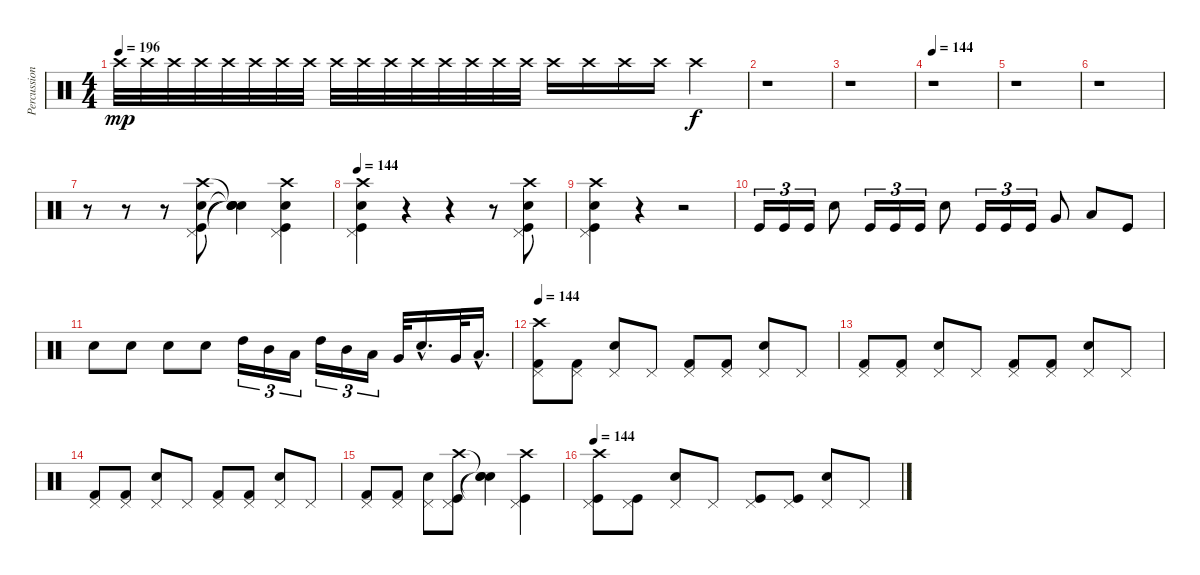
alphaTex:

\track ("Percussion" "Percussion") {instrument percussion}
\staff {score}
\articulation defaults
\ts (4 4)
\tempo 196
\clef neutral
\ks c "Crash high (hit)".32{dy mp} "Crash high (hit)".32 "Crash high (hit)".32 "Crash high (hit)".32 "Crash high (hit)".32 "Crash high (hit)".32 "Crash high (hit)".32 "Crash high (hit)".32 "Crash high (hit)".32 "Crash high (hit)".32 "Crash high (hit)".32 "Crash high (hit)".32 "Crash high (hit)".32 "Crash high (hit)".32 "Crash high (hit)".32 "Crash high (hit)".32 "Crash high (hit)".16 "Crash high (hit)".16 "Crash high (hit)".16 "Crash high (hit)".16 "Crash high (hit)".4{dy f}
|
r.1 |
r.1 |
\tempo 144
r.1 |
r.1 |
r.1 |
r.8 r.8 r.8 ("Crash high (hit)" "Pedal Hi-Hat (hit)" "Kick (hit)" "Snare (hit) 2").8 ("Snare (hit)"{t} "Snare (hit)"{t} "Snare (hit)"{t} "Snare (hit)"{t}).4 ("Crash high (hit)" "Pedal Hi-Hat (hit)" "Kick (hit)" "Snare (hit) 2").4 |
\tempo 144
("Crash high (hit)" "Kick (hit)" "Snare (hit) 2" "Pedal Hi-Hat (hit)").4 r.4 r.4 r.8 ("Crash high (hit)" "Kick (hit)" "Snare (hit) 2" "Pedal Hi-Hat (hit)").8 |
("Crash high (hit)" "Kick (hit)" "Snare (hit) 2" "Pedal Hi-Hat (hit)").4 r.4 r.2 |
"Kick (hit)".16{tu (3 2)} "Kick (hit)".16{tu (3 2)} "Kick (hit)".16{tu (3 2)} "Snare (hit) 2".8 "Kick (hit)".16{tu (3 2)} "Kick (hit)".16{tu (3 2)} "Kick (hit)".16{tu (3 2)} "Snare (hit) 2".8 "Kick (hit)".16{tu (3 2)} "Kick (hit)".16{tu (3 2)} "Kick (hit)".16{tu (3 2)} "Very Low Tom (hit)".8 "Low Floor Tom (hit)".8 "Kick (hit)".8 |
"Snare (hit) 2".8 "Snare (hit) 2".8 "Snare (hit) 2".8 "Snare (hit) 2".8 "High Tom (hit)".16{tu (3 2)} "Mid Tom (hit)".16{tu (3 2)} "Low Tom (hit)".16{tu (3 2)} "High Tom (hit)".16{tu (3 2)} "Mid Tom (hit)".16{tu (3 2)} "Low Tom (hit)".16{tu (3 2)} "Very Low Tom (hit)".32 "Snare (hit) 2"{hac}.16{d} "Very Low Tom (hit)".32 "Low Floor Tom (hit)"{hac}.16{d} |
\tempo 144
("Pedal Hi-Hat (hit)" "Kick (hit) 2" "Crash high (hit)").8 ("Pedal Hi-Hat (hit)" "Kick (hit) 2").8 ("Pedal Hi-Hat (hit)" "Snare (hit) 2").8 "Pedal Hi-Hat (hit)".8 ("Pedal Hi-Hat (hit)" "Kick (hit) 2").8 ("Pedal Hi-Hat (hit)" "Kick (hit) 2").8 ("Pedal Hi-Hat (hit)" "Snare (hit) 2").8 "Pedal Hi-Hat (hit)".8 |
("Pedal Hi-Hat (hit)" "Kick (hit) 2").8 ("Pedal Hi-Hat (hit)" "Kick (hit) 2").8 ("Pedal Hi-Hat (hit)" "Snare (hit) 2").8 "Pedal Hi-Hat (hit)".8 ("Pedal Hi-Hat (hit)" "Kick (hit) 2").8 ("Pedal Hi-Hat (hit)" "Kick (hit) 2").8 ("Pedal Hi-Hat (hit)" "Snare (hit) 2").8 "Pedal Hi-Hat (hit)".8 |
("Pedal Hi-Hat (hit)" "Kick (hit) 2").8 ("Pedal Hi-Hat (hit)" "Kick (hit) 2").8 ("Pedal Hi-Hat (hit)" "Snare (hit) 2").8 "Pedal Hi-Hat (hit)".8 ("Pedal Hi-Hat (hit)" "Kick (hit) 2").8 ("Pedal Hi-Hat (hit)" "Kick (hit) 2").8 ("Pedal Hi-Hat (hit)" "Snare (hit) 2").8 "Pedal Hi-Hat (hit)".8 |
("Pedal Hi-Hat (hit)" "Kick (hit) 2").8 ("Pedal Hi-Hat (hit)" "Kick (hit) 2").8 ("Pedal Hi-Hat (hit)" "Snare (hit) 2").8 ("Crash high (hit)" "Pedal Hi-Hat (hit)" "Kick (hit)").8 ("Snare (hit)"{t} "Snare (hit)"{t} "Snare (hit)"{t}).4 ("Crash high (hit)" "Pedal Hi-Hat (hit)" "Kick (hit)").4 |
\tempo 144
("Pedal Hi-Hat (hit)" "Kick (hit)" "Crash high (hit)").8 ("Pedal Hi-Hat (hit)" "Kick (hit)").8 ("Pedal Hi-Hat (hit)" "Snare (hit) 2").8 "Pedal Hi-Hat (hit)".8 ("Pedal Hi-Hat (hit)" "Kick (hit)").8 ("Pedal Hi-Hat (hit)" "Kick (hit)").8 ("Pedal Hi-Hat (hit)" "Snare (hit) 2").8 "Pedal Hi-Hat (hit)".8
